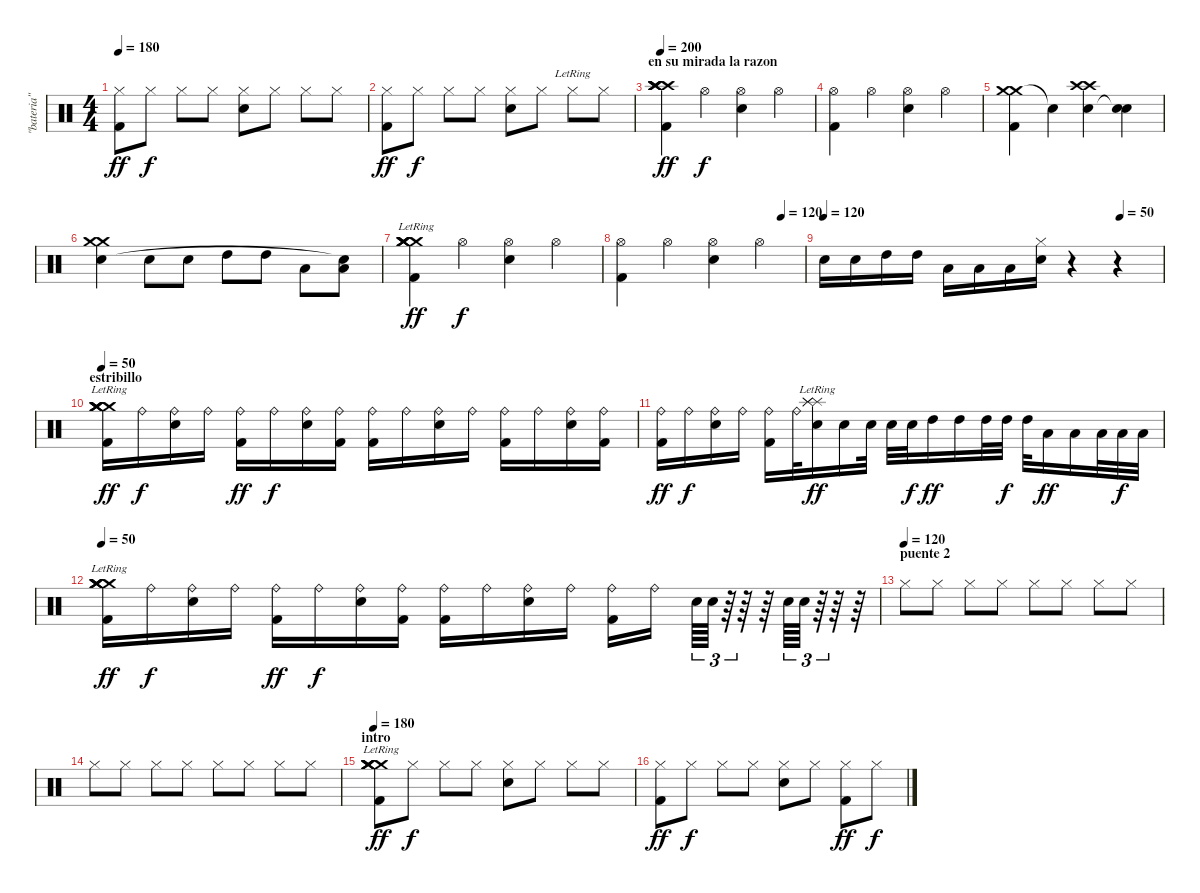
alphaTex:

\track ("\"bateria\"" "\"bateria\"") {instrument percussion}
\staff {score}
\articulation defaults
\ts (4 4)
\tempo 180
\clef neutral
\ks c
("Kick (hit) 2" "Hi-Hat (closed)").8{dy ff} "Hi-Hat (closed)".8{dy f} "Hi-Hat (closed)".8 "Hi-Hat (closed)".8 ("Electric Snare (hit)" "Hi-Hat (closed)").8 "Hi-Hat (closed)".8 "Hi-Hat (closed)".8 "Hi-Hat (closed)".8 |
("Kick (hit) 2" "Hi-Hat (closed)").8{dy ff} "Hi-Hat (closed)".8{dy f} "Hi-Hat (closed)".8 "Hi-Hat (closed)".8 ("Electric Snare (hit)" "Hi-Hat (closed)").8 "Hi-Hat (closed)".8 "Hi-Hat (closed)"{lr}.8 "Hi-Hat (closed)".8 |
\section ("" "en su mirada la razon")
\tempo 200
("Kick (hit) 2" "Crash high (hit)" "Crash high (hit)" "Crash high (hit)" "Crash high (hit)" "Crash high (hit)").4{dy ff} "Hi-Hat (open)".4{dy f} ("Hi-Hat (open)" "Electric Snare (hit)").4 "Hi-Hat (open)".4 |
("Hi-Hat (open)" "Kick (hit) 2").4 "Hi-Hat (open)".4 ("Hi-Hat (open)" "Electric Snare (hit)").4 "Hi-Hat (open)".4 |
("Crash medium (hit)" "Kick (hit) 2" "Crash medium (hit)").4 "Snare (hit)"{t}.4 ("Crash high (hit)" "Electric Snare (hit)" "Crash high (hit)").4 ("Electric Snare (hit)" "Snare (hit)"{t}).4 |
("Crash medium (hit)" "Electric Snare (hit)" "Crash medium (hit)").4 "Snare (hit) 2".8 "Snare (hit) 2".8 "High Tom (hit)".8 "High Tom (hit)".8 "Low Tom (hit)".8 ("Low Tom (hit)" "Snare (hit)"{t}).8 |
("Kick (hit) 2" "Crash medium (hit)"{lr} "Crash medium (hit)"{lr} "Crash medium (hit)"{lr} "Crash medium (hit)"{lr} "Crash medium (hit)"{lr}).4{dy ff} "Hi-Hat (open)".4{dy f} ("Hi-Hat (open)" "Electric Snare (hit)").4 "Hi-Hat (open)".4 |
\tempo (120 0.875)
("Hi-Hat (open)" "Kick (hit) 2").4 "Hi-Hat (open)".4 ("Hi-Hat (open)" "Electric Snare (hit)").4 "Hi-Hat (open)".4 |
\tempo 120
\tempo (50 0.875)
"Snare (hit) 2".16 "Snare (hit) 2".16 "High Tom (hit)".16 "High Tom (hit)".16 "Low Tom (hit)".16 "Low Tom (hit)".16 "Low Floor Tom (hit)".16 ("Electric Snare (hit)" "Hi-Hat (closed)").16 r.4 r.4 |
\section ("" "estribillo")
\tempo 50
("Kick (hit) 2" "Crash medium (hit)"{lr} "Crash medium (hit)"{lr} "Crash medium (hit)"{lr} "Crash medium (hit)"{lr} "Crash medium (hit)"{lr}).16{dy ff} "Ride (bell)".16{dy f} ("Ride (bell)" "Electric Snare (hit)").16 "Ride (bell)".16 ("Ride (bell)" "Kick (hit) 2").16{dy ff} "Ride (bell)".16{dy f} ("Ride (bell)" "Electric Snare (hit)").16 ("Ride (bell)" "Kick (hit) 2").16 ("Ride (bell)" "Kick (hit) 2").16 "Ride (bell)".16 ("Ride (bell)" "Electric Snare (hit)").16 "Ride (bell)".16 ("Ride (bell)" "Kick (hit) 2").16 "Ride (bell)".16 ("Ride (bell)" "Electric Snare (hit)").16 ("Ride (bell)" "Kick (hit) 2").16 |
("Ride (bell)" "Kick (hit) 2").16{dy ff} "Ride (bell)".16{dy f} ("Ride (bell)" "Electric Snare (hit)").16 "Ride (bell)".16 ("Ride (bell)" "Kick (hit) 2").16 "Ride (bell)".32 ("Splash (hit)"{lr} "Electric Snare (hit)" "Splash (hit)"{lr} "Splash (hit)"{lr}).16{dy ff} "Snare (hit) 2".16 "Snare (hit) 2".32 "Snare (hit) 2".32 "Snare (hit) 2".32{dy f} "High Tom (hit)".16{dy ff} "High Tom (hit)".16 "High Tom (hit)".32 "High Tom (hit)".32{dy f} "High Tom (hit)".32 "Low Tom (hit)".16{dy ff} "Low Tom (hit)".16 "Low Tom (hit)".32 "Low Tom (hit)".32{dy f} "Low Tom (hit)".32 |
\tempo 50
("Kick (hit) 2" "Crash medium (hit)"{lr} "Crash medium (hit)"{lr} "Crash medium (hit)"{lr} "Crash medium (hit)"{lr} "Crash medium (hit)"{lr}).16{dy ff} "Ride (bell)".16{dy f} ("Ride (bell)" "Electric Snare (hit)").16 "Ride (bell)".16 ("Ride (bell)" "Kick (hit) 2").16{dy ff} "Ride (bell)".16{dy f} ("Ride (bell)" "Electric Snare (hit)").16 ("Ride (bell)" "Kick (hit) 2").16 ("Ride (bell)" "Kick (hit) 2").16 "Ride (bell)".16 ("Ride (bell)" "Electric Snare (hit)").16 "Ride (bell)".16 ("Ride (bell)" "Kick (hit) 2").16 "Ride (bell)".16 "Snare (hit) 2".64{tu (3 2)} "Snare (hit) 2".64{tu (3 2)} r.64{tu (3 2)} r.64 r.64 "Snare (hit) 2".64{tu (3 2)} "Snare (hit) 2".64{tu (3 2)} r.64{tu (3 2)} r.64 r.64 |
\section ("" "puente 2")
\tempo (120)
"Hi-Hat (closed)".8 "Hi-Hat (closed)".8 "Hi-Hat (closed)".8 "Hi-Hat (closed)".8 "Hi-Hat (closed)".8 "Hi-Hat (closed)".8 "Hi-Hat (closed)".8 "Hi-Hat (closed)".8 |
"Hi-Hat (closed)".8 "Hi-Hat (closed)".8 "Hi-Hat (closed)".8 "Hi-Hat (closed)".8 "Hi-Hat (closed)".8 "Hi-Hat (closed)".8 "Hi-Hat (closed)".8 "Hi-Hat (closed)".8 |
\section ("" "intro")
\tempo 180
("Kick (hit) 2" "Crash medium (hit)"{lr} "Crash medium (hit)"{lr} "Crash medium (hit)"{lr} "Crash medium (hit)"{lr} "Crash medium (hit)"{lr}).8{dy ff} "Hi-Hat (closed)".8{dy f} "Hi-Hat (closed)".8 "Hi-Hat (closed)".8 ("Electric Snare (hit)" "Hi-Hat (closed)").8 "Hi-Hat (closed)".8 "Hi-Hat (closed)".8 "Hi-Hat (closed)".8 |
("Kick (hit) 2" "Hi-Hat (closed)").8{dy ff} "Hi-Hat (closed)".8{dy f} "Hi-Hat (closed)".8 "Hi-Hat (closed)".8 ("Electric Snare (hit)" "Hi-Hat (closed)").8 "Hi-Hat (closed)".8 ("Kick (hit) 2" "Hi-Hat (closed)").8{dy ff} "Hi-Hat (closed)".8{dy f}
